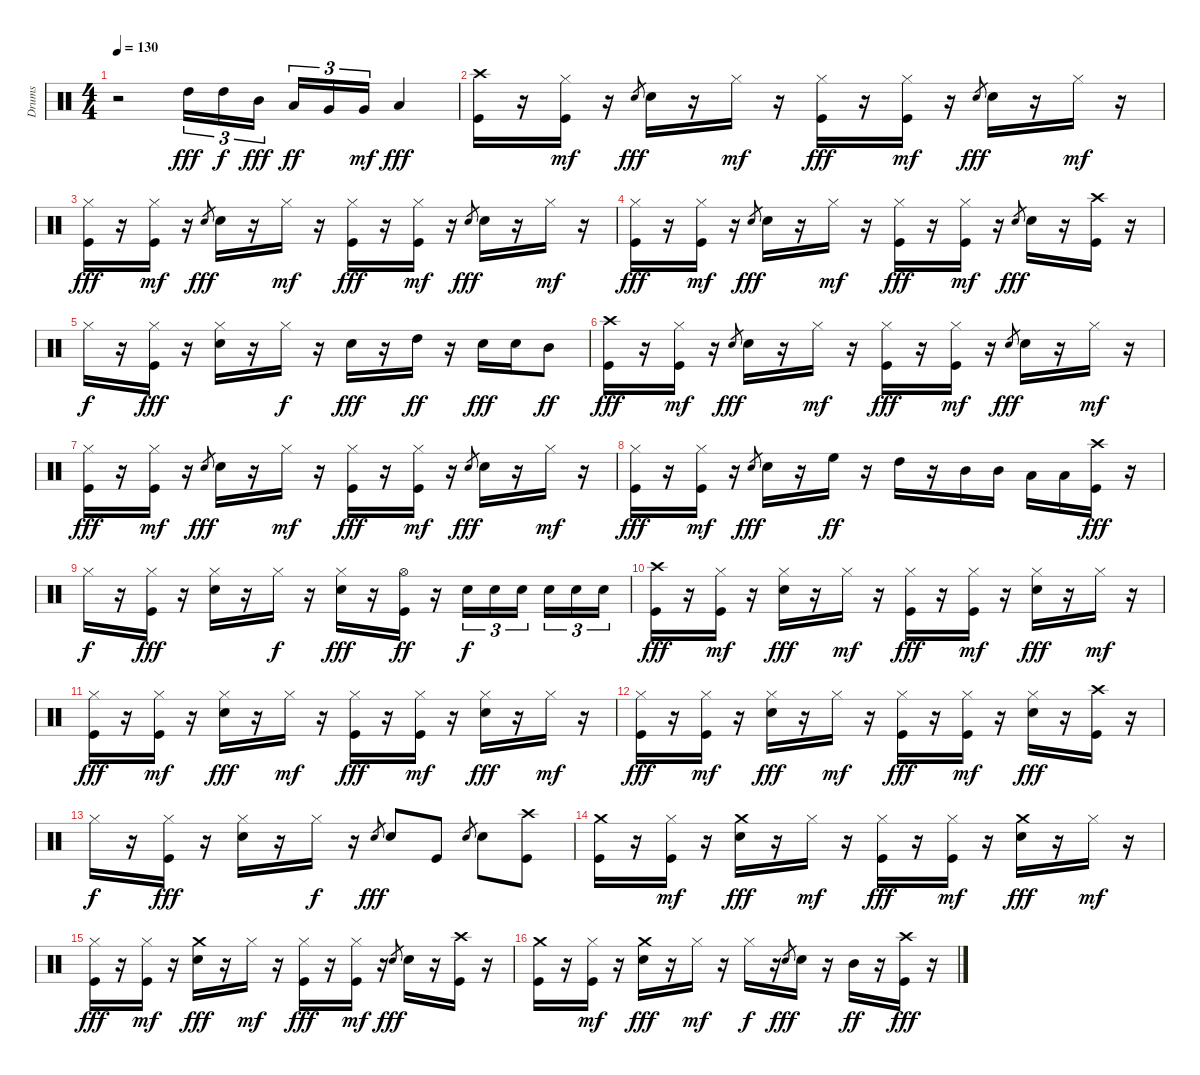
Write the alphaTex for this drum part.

\track ("Drums" "Drums") {instrument percussion}
\staff {score}
\articulation defaults
\ts (4 4)
\tempo 130
\clef neutral
\ks c
r.2{dy fff} "High Tom (hit)".16{tu (3 2)} "High Tom (hit)".16{tu (3 2) dy f} "Mid Tom (hit)".16{tu (3 2) dy fff} "Low Tom (hit)".16{tu (3 2) dy ff} "Very Low Tom (hit)".16{tu (3 2)} "Very Low Tom (hit)".16{tu (3 2) dy mf} "Low Floor Tom (hit)".4{dy fff} |
("Kick (hit)" "Crash high (hit)").16 r.16 ("Kick (hit)" "Hi-Hat (closed)").16{dy mf} r.16 "Electric Snare (hit)".8{gr dy fff} "Electric Snare (hit)".16 r.16 "Hi-Hat (closed)".16{dy mf} r.16 ("Kick (hit)" "Hi-Hat (closed)").16{dy fff} r.16 ("Kick (hit)" "Hi-Hat (closed)").16{dy mf} r.16 "Electric Snare (hit)".8{gr dy fff} "Electric Snare (hit)".16 r.16 "Hi-Hat (closed)".16{dy mf} r.16 |
("Kick (hit)" "Hi-Hat (closed)").16{dy fff} r.16 ("Kick (hit)" "Hi-Hat (closed)").16{dy mf} r.16 "Electric Snare (hit)".8{gr dy fff} "Electric Snare (hit)".16 r.16 "Hi-Hat (closed)".16{dy mf} r.16 ("Kick (hit)" "Hi-Hat (closed)").16{dy fff} r.16 ("Kick (hit)" "Hi-Hat (closed)").16{dy mf} r.16 "Electric Snare (hit)".8{gr dy fff} "Electric Snare (hit)".16 r.16 "Hi-Hat (closed)".16{dy mf} r.16 |
("Kick (hit)" "Hi-Hat (closed)").16{dy fff} r.16 ("Kick (hit)" "Hi-Hat (closed)").16{dy mf} r.16 "Electric Snare (hit)".8{gr dy fff} "Electric Snare (hit)".16 r.16 "Hi-Hat (closed)".16{dy mf} r.16 ("Kick (hit)" "Hi-Hat (closed)").16{dy fff} r.16 ("Kick (hit)" "Hi-Hat (closed)").16{dy mf} r.16 "Electric Snare (hit)".8{gr dy fff} "Electric Snare (hit)".16 r.16 ("Kick (hit)" "Crash high (hit)").16 r.16 |
"Hi-Hat (closed)".16{dy f} r.16 ("Kick (hit)" "Hi-Hat (closed)").16{dy fff} r.16 ("Electric Snare (hit)" "Hi-Hat (closed)").16 r.16 "Hi-Hat (closed)".16{dy f} r.16 "Electric Snare (hit)".16{dy fff} r.16 "High Tom (hit)".16{dy ff} r.16 "Electric Snare (hit)".16{dy fff} "Electric Snare (hit)".16 "Mid Tom (hit)".8{dy ff} |
("Kick (hit)" "Crash high (hit)").16{dy fff} r.16 ("Kick (hit)" "Hi-Hat (closed)").16{dy mf} r.16 "Electric Snare (hit)".8{gr dy fff} "Electric Snare (hit)".16 r.16 "Hi-Hat (closed)".16{dy mf} r.16 ("Kick (hit)" "Hi-Hat (closed)").16{dy fff} r.16 ("Kick (hit)" "Hi-Hat (closed)").16{dy mf} r.16 "Electric Snare (hit)".8{gr dy fff} "Electric Snare (hit)".16 r.16 "Hi-Hat (closed)".16{dy mf} r.16 |
("Kick (hit)" "Hi-Hat (closed)").16{dy fff} r.16 ("Kick (hit)" "Hi-Hat (closed)").16{dy mf} r.16 "Electric Snare (hit)".8{gr dy fff} "Electric Snare (hit)".16 r.16 "Hi-Hat (closed)".16{dy mf} r.16 ("Kick (hit)" "Hi-Hat (closed)").16{dy fff} r.16 ("Kick (hit)" "Hi-Hat (closed)").16{dy mf} r.16 "Electric Snare (hit)".8{gr dy fff} "Electric Snare (hit)".16 r.16 "Hi-Hat (closed)".16{dy mf} r.16 |
("Kick (hit)" "Hi-Hat (closed)").16{dy fff} r.16 ("Kick (hit)" "Hi-Hat (closed)").16{dy mf} r.16 "Electric Snare (hit)".8{gr dy fff} "Electric Snare (hit)".16 r.16 "High Floor Tom (hit)".16{dy ff} r.16 "High Tom (hit)".16 r.16 "Mid Tom (hit)".16 "Mid Tom (hit)".16 "Low Tom (hit)".16 "Low Tom (hit)".16 ("Kick (hit)" "Crash high (hit)").16{dy fff} r.16 |
"Hi-Hat (closed)".16{dy f} r.16 ("Kick (hit)" "Hi-Hat (closed)").16{dy fff} r.16 ("Electric Snare (hit)" "Hi-Hat (closed)").16 r.16 "Hi-Hat (closed)".16{dy f} r.16 ("Electric Snare (hit)" "Hi-Hat (closed)").16{dy fff} r.16 ("Kick (hit)" "Hi-Hat (open)").16{dy ff} r.16 "Electric Snare (hit)".16{tu (3 2) dy f} "Electric Snare (hit)".16{tu (3 2)} "Electric Snare (hit)".16{tu (3 2)} "Electric Snare (hit)".16{tu (3 2)} "Electric Snare (hit)".16{tu (3 2)} "Electric Snare (hit)".16{tu (3 2)} |
("Kick (hit)" "Crash high (hit)").16{dy fff} r.16 ("Kick (hit)" "Hi-Hat (closed)").16{dy mf} r.16 ("Electric Snare (hit)" "Hi-Hat (closed)").16{dy fff} r.16 "Hi-Hat (closed)".16{dy mf} r.16 ("Kick (hit)" "Hi-Hat (closed)").16{dy fff} r.16 ("Kick (hit)" "Hi-Hat (closed)").16{dy mf} r.16 ("Electric Snare (hit)" "Hi-Hat (closed)").16{dy fff} r.16 "Hi-Hat (closed)".16{dy mf} r.16 |
("Kick (hit)" "Hi-Hat (closed)").16{dy fff} r.16 ("Kick (hit)" "Hi-Hat (closed)").16{dy mf} r.16 ("Electric Snare (hit)" "Hi-Hat (closed)").16{dy fff} r.16 "Hi-Hat (closed)".16{dy mf} r.16 ("Kick (hit)" "Hi-Hat (closed)").16{dy fff} r.16 ("Kick (hit)" "Hi-Hat (closed)").16{dy mf} r.16 ("Electric Snare (hit)" "Hi-Hat (closed)").16{dy fff} r.16 "Hi-Hat (closed)".16{dy mf} r.16 |
("Kick (hit)" "Hi-Hat (closed)").16{dy fff} r.16 ("Kick (hit)" "Hi-Hat (closed)").16{dy mf} r.16 ("Electric Snare (hit)" "Hi-Hat (closed)").16{dy fff} r.16 "Hi-Hat (closed)".16{dy mf} r.16 ("Kick (hit)" "Hi-Hat (closed)").16{dy fff} r.16 ("Kick (hit)" "Hi-Hat (closed)").16{dy mf} r.16 ("Electric Snare (hit)" "Hi-Hat (closed)").16{dy fff} r.16 ("Kick (hit)" "Crash high (hit)").16 r.16 |
"Hi-Hat (closed)".16{dy f} r.16 ("Kick (hit)" "Hi-Hat (closed)").16{dy fff} r.16 ("Electric Snare (hit)" "Hi-Hat (closed)").16 r.16 "Hi-Hat (closed)".16{dy f} r.16 "Electric Snare (hit)".8{gr dy fff} "Electric Snare (hit)".8 "Kick (hit)".8 "Electric Snare (hit)".8{gr} "Electric Snare (hit)".8 ("Kick (hit)" "Crash high (hit)").8 |
("Kick (hit)" "Crash medium (hit)").16 r.16 ("Kick (hit)" "Hi-Hat (closed)").16{dy mf} r.16 ("Electric Snare (hit)" "Crash medium (hit)").16{dy fff} r.16 "Hi-Hat (closed)".16{dy mf} r.16 ("Kick (hit)" "Hi-Hat (closed)").16{dy fff} r.16 ("Kick (hit)" "Hi-Hat (closed)").16{dy mf} r.16 ("Electric Snare (hit)" "Crash medium (hit)").16{dy fff} r.16 "Hi-Hat (closed)".16{dy mf} r.16 |
("Kick (hit)" "Hi-Hat (closed)").16{dy fff} r.16 ("Kick (hit)" "Hi-Hat (closed)").16{dy mf} r.16 ("Electric Snare (hit)" "Crash medium (hit)").16{dy fff} r.16 "Hi-Hat (closed)".16{dy mf} r.16 ("Kick (hit)" "Hi-Hat (closed)").16{dy fff} r.16 ("Kick (hit)" "Hi-Hat (closed)").16{dy mf} r.16 "Electric Snare (hit)".8{gr dy fff} "Electric Snare (hit)".16 r.16 ("Kick (hit)" "Crash high (hit)").16 r.16 |
("Kick (hit)" "Crash medium (hit)").16 r.16 ("Kick (hit)" "Hi-Hat (closed)").16{dy mf} r.16 ("Electric Snare (hit)" "Crash medium (hit)").16{dy fff} r.16 "Hi-Hat (closed)".16{dy mf} r.16 "Hi-Hat (closed)".16{dy f} r.16 "Electric Snare (hit)".8{gr dy fff} "Electric Snare (hit)".16 r.16 "Mid Tom (hit)".16{dy ff} r.16 ("Kick (hit)" "Crash high (hit)").16{dy fff} r.16
